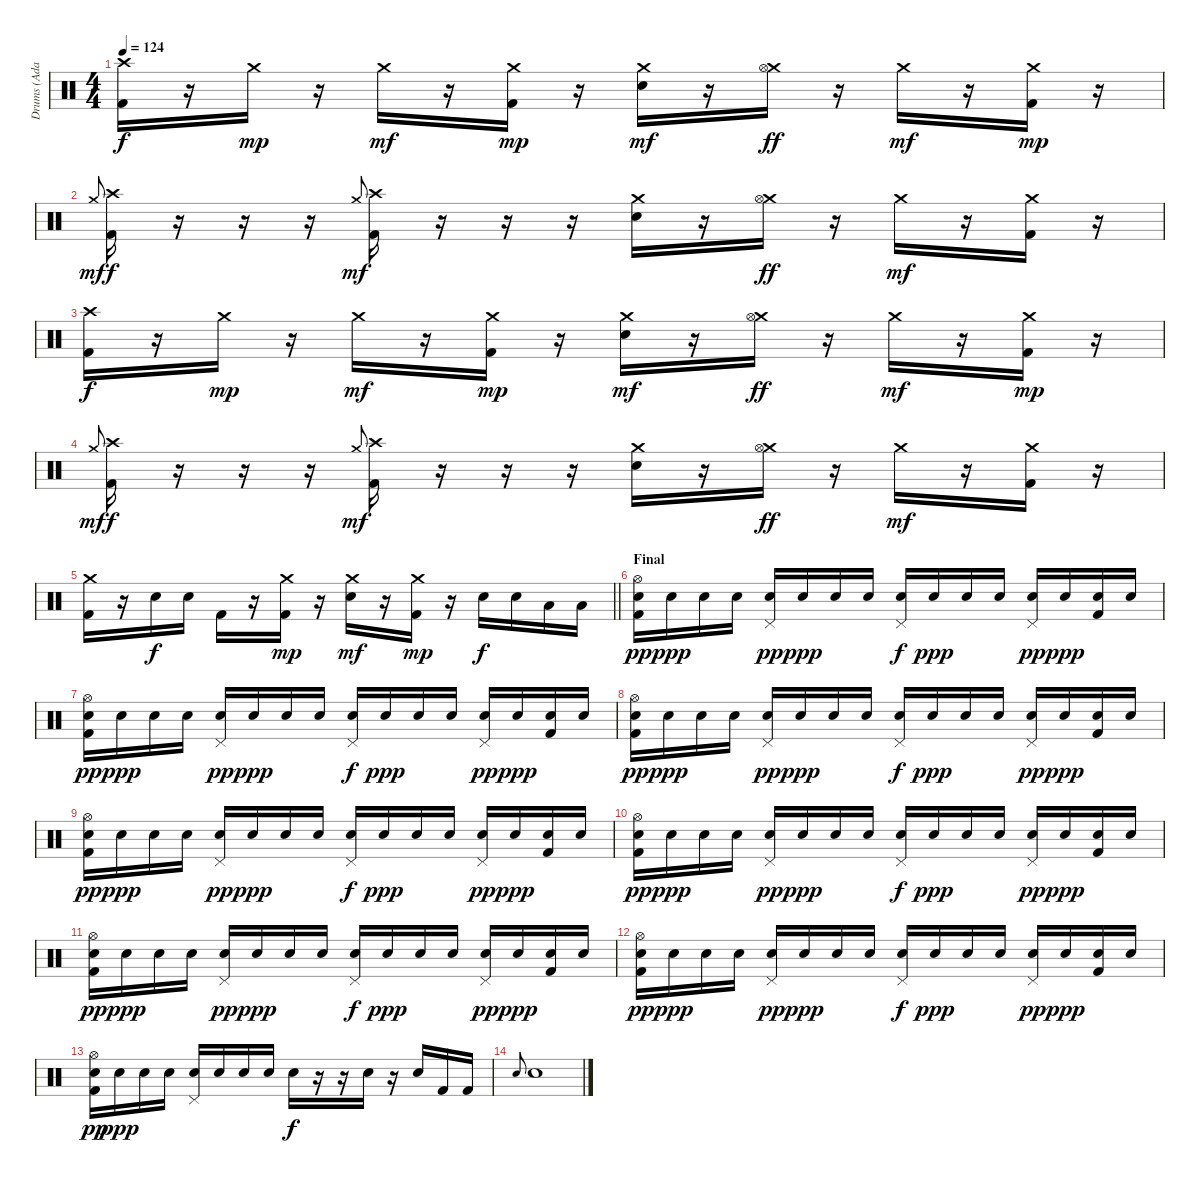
\track ("Drums (Adam Morgan)" "Drums (Ada") {instrument percussion}
\staff {score}
\articulation defaults
\ts (4 4)
\tempo 124
\clef neutral
\ks c
("Crash high (hit)" "Kick (hit) 2").16{dy f} r.16 "Crash medium (hit)".16{dy mp} r.16 "Crash medium (hit)".16{dy mf} r.16 ("Crash medium (hit)" "Kick (hit) 2").16{dy mp} r.16 ("Crash medium (hit)" "Snare (hit) 2").16{dy mf} r.16 ("Crash medium (hit)" "Hi-Hat (open)").16{dy ff} r.16 "Crash medium (hit)".16{dy mf} r.16 ("Crash medium (hit)" "Kick (hit) 2").16{dy mp} r.16 |
"Crash medium (hit)".8{gr onbeat dy mf} ("Crash high (hit)" "Kick (hit) 2").16{dy f} r.16 r.16 r.16 "Crash medium (hit)".8{gr onbeat dy mf} ("Crash high (hit)" "Kick (hit) 2").16 r.16 r.16 r.16 ("Crash medium (hit)" "Snare (hit) 2").16 r.16 ("Crash medium (hit)" "Hi-Hat (open)").16{dy ff} r.16 "Crash medium (hit)".16{dy mf} r.16 ("Crash medium (hit)" "Kick (hit) 2").16 r.16 |
("Crash high (hit)" "Kick (hit) 2").16{dy f} r.16 "Crash medium (hit)".16{dy mp} r.16 "Crash medium (hit)".16{dy mf} r.16 ("Crash medium (hit)" "Kick (hit) 2").16{dy mp} r.16 ("Crash medium (hit)" "Snare (hit) 2").16{dy mf} r.16 ("Crash medium (hit)" "Hi-Hat (open)").16{dy ff} r.16 "Crash medium (hit)".16{dy mf} r.16 ("Crash medium (hit)" "Kick (hit) 2").16{dy mp} r.16 |
"Crash medium (hit)".8{gr onbeat dy mf} ("Crash high (hit)" "Kick (hit) 2").16{dy f} r.16 r.16 r.16 "Crash medium (hit)".8{gr onbeat dy mf} ("Crash high (hit)" "Kick (hit) 2").16 r.16 r.16 r.16 ("Crash medium (hit)" "Snare (hit) 2").16 r.16 ("Crash medium (hit)" "Hi-Hat (open)").16{dy ff} r.16 "Crash medium (hit)".16{dy mf} r.16 ("Crash medium (hit)" "Kick (hit) 2").16 r.16 |
\barLineRight lightlight
("Crash medium (hit)" "Kick (hit) 2").16 r.16 "Snare (hit) 2".16{dy f} "Snare (hit) 2".16 "Kick (hit) 2".16 r.16 ("Crash medium (hit)" "Kick (hit) 2").16{dy mp} r.16 ("Crash medium (hit)" "Snare (hit) 2").16{dy mf} r.16 ("Crash medium (hit)" "Kick (hit) 2").16{dy mp} r.16 "Snare (hit) 2".16{dy f} "Snare (hit) 2".16 "Low Tom (hit)".16 "Low Tom (hit)".16 |
\section ("" "Final")
("Hi-Hat (open)" "Snare (hit) 2" "Kick (hit) 2").16{dy pp} "Snare (hit) 2".16{dy ppp} "Snare (hit) 2".16 "Snare (hit) 2".16 ("Pedal Hi-Hat (hit)" "Snare (hit) 2").16{dy pp} "Snare (hit) 2".16{dy ppp} "Snare (hit) 2".16 "Snare (hit) 2".16 ("Pedal Hi-Hat (hit)" "Snare (hit) 2").16{dy f} "Snare (hit) 2".16{dy ppp} "Snare (hit) 2".16 "Snare (hit) 2".16 ("Pedal Hi-Hat (hit)" "Snare (hit) 2").16{dy pp} "Snare (hit) 2".16{dy ppp} ("Snare (hit) 2" "Kick (hit) 2").16 "Snare (hit) 2".16 |
("Hi-Hat (open)" "Snare (hit) 2" "Kick (hit) 2").16{dy pp} "Snare (hit) 2".16{dy ppp} "Snare (hit) 2".16 "Snare (hit) 2".16 ("Pedal Hi-Hat (hit)" "Snare (hit) 2").16{dy pp} "Snare (hit) 2".16{dy ppp} "Snare (hit) 2".16 "Snare (hit) 2".16 ("Pedal Hi-Hat (hit)" "Snare (hit) 2").16{dy f} "Snare (hit) 2".16{dy ppp} "Snare (hit) 2".16 "Snare (hit) 2".16 ("Pedal Hi-Hat (hit)" "Snare (hit) 2").16{dy pp} "Snare (hit) 2".16{dy ppp} ("Snare (hit) 2" "Kick (hit) 2").16 "Snare (hit) 2".16 |
("Hi-Hat (open)" "Snare (hit) 2" "Kick (hit) 2").16{dy pp} "Snare (hit) 2".16{dy ppp} "Snare (hit) 2".16 "Snare (hit) 2".16 ("Pedal Hi-Hat (hit)" "Snare (hit) 2").16{dy pp} "Snare (hit) 2".16{dy ppp} "Snare (hit) 2".16 "Snare (hit) 2".16 ("Pedal Hi-Hat (hit)" "Snare (hit) 2").16{dy f} "Snare (hit) 2".16{dy ppp} "Snare (hit) 2".16 "Snare (hit) 2".16 ("Pedal Hi-Hat (hit)" "Snare (hit) 2").16{dy pp} "Snare (hit) 2".16{dy ppp} ("Snare (hit) 2" "Kick (hit) 2").16 "Snare (hit) 2".16 |
("Hi-Hat (open)" "Snare (hit) 2" "Kick (hit) 2").16{dy pp} "Snare (hit) 2".16{dy ppp} "Snare (hit) 2".16 "Snare (hit) 2".16 ("Pedal Hi-Hat (hit)" "Snare (hit) 2").16{dy pp} "Snare (hit) 2".16{dy ppp} "Snare (hit) 2".16 "Snare (hit) 2".16 ("Pedal Hi-Hat (hit)" "Snare (hit) 2").16{dy f} "Snare (hit) 2".16{dy ppp} "Snare (hit) 2".16 "Snare (hit) 2".16 ("Pedal Hi-Hat (hit)" "Snare (hit) 2").16{dy pp} "Snare (hit) 2".16{dy ppp} ("Snare (hit) 2" "Kick (hit) 2").16 "Snare (hit) 2".16 |
("Hi-Hat (open)" "Snare (hit) 2" "Kick (hit) 2").16{dy pp} "Snare (hit) 2".16{dy ppp} "Snare (hit) 2".16 "Snare (hit) 2".16 ("Pedal Hi-Hat (hit)" "Snare (hit) 2").16{dy pp} "Snare (hit) 2".16{dy ppp} "Snare (hit) 2".16 "Snare (hit) 2".16 ("Pedal Hi-Hat (hit)" "Snare (hit) 2").16{dy f} "Snare (hit) 2".16{dy ppp} "Snare (hit) 2".16 "Snare (hit) 2".16 ("Pedal Hi-Hat (hit)" "Snare (hit) 2").16{dy pp} "Snare (hit) 2".16{dy ppp} ("Snare (hit) 2" "Kick (hit) 2").16 "Snare (hit) 2".16 |
("Hi-Hat (open)" "Snare (hit) 2" "Kick (hit) 2").16{dy pp} "Snare (hit) 2".16{dy ppp} "Snare (hit) 2".16 "Snare (hit) 2".16 ("Pedal Hi-Hat (hit)" "Snare (hit) 2").16{dy pp} "Snare (hit) 2".16{dy ppp} "Snare (hit) 2".16 "Snare (hit) 2".16 ("Pedal Hi-Hat (hit)" "Snare (hit) 2").16{dy f} "Snare (hit) 2".16{dy ppp} "Snare (hit) 2".16 "Snare (hit) 2".16 ("Pedal Hi-Hat (hit)" "Snare (hit) 2").16{dy pp} "Snare (hit) 2".16{dy ppp} ("Snare (hit) 2" "Kick (hit) 2").16 "Snare (hit) 2".16 |
("Hi-Hat (open)" "Snare (hit) 2" "Kick (hit) 2").16{dy pp} "Snare (hit) 2".16{dy ppp} "Snare (hit) 2".16 "Snare (hit) 2".16 ("Pedal Hi-Hat (hit)" "Snare (hit) 2").16{dy pp} "Snare (hit) 2".16{dy ppp} "Snare (hit) 2".16 "Snare (hit) 2".16 ("Pedal Hi-Hat (hit)" "Snare (hit) 2").16{dy f} "Snare (hit) 2".16{dy ppp} "Snare (hit) 2".16 "Snare (hit) 2".16 ("Pedal Hi-Hat (hit)" "Snare (hit) 2").16{dy pp} "Snare (hit) 2".16{dy ppp} ("Snare (hit) 2" "Kick (hit) 2").16 "Snare (hit) 2".16 |
("Hi-Hat (open)" "Snare (hit) 2" "Kick (hit) 2").16{dy pp} "Snare (hit) 2".16{dy ppp} "Snare (hit) 2".16 "Snare (hit) 2".16 ("Pedal Hi-Hat (hit)" "Snare (hit) 2").16 "Snare (hit) 2".16 "Snare (hit) 2".16 "Snare (hit) 2".16 "Snare (hit) 2".16{dy f} r.16 r.16 "Snare (hit) 2".16 r.16 "Snare (hit) 2".16 "Kick (hit) 2".16 "Kick (hit) 2".16 |
"Snare (hit) 2".8{gr onbeat} "Snare (hit) 2".1
